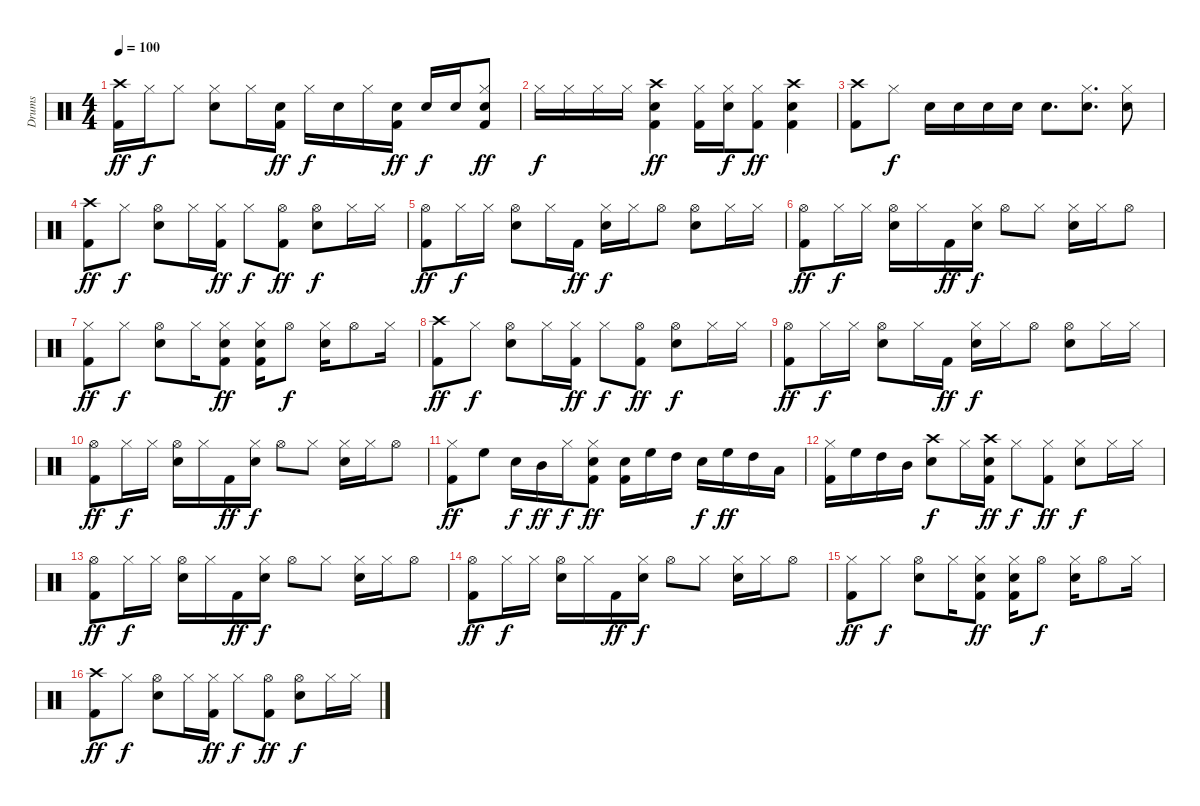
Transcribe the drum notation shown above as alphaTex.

\track ("Drums" "Drums") {instrument percussion}
\staff {score}
\articulation defaults
\ts (4 4)
\tempo 100
\clef neutral
\ks c
("Crash high (hit)" "Kick (hit) 2").16{dy ff} "Hi-Hat (closed)".16{dy f} "Hi-Hat (closed)".8 ("Hi-Hat (closed)" "Snare (hit) 2").8 "Hi-Hat (closed)".16 ("Snare (hit) 2" "Kick (hit) 2").16{dy ff} "Hi-Hat (closed)".16{dy f} "Snare (hit) 2".16 "Hi-Hat (closed)".16 ("Snare (hit) 2" "Kick (hit) 2").16{dy ff} "Snare (hit) 2".16{dy f} "Snare (hit) 2".16 ("Hi-Hat (closed)" "Snare (hit) 2" "Kick (hit) 2").8{dy ff} |
"Hi-Hat (closed)".16{dy f} "Hi-Hat (closed)".16 "Hi-Hat (closed)".16 "Hi-Hat (closed)".16 ("Crash high (hit)" "Snare (hit) 2" "Kick (hit) 2").4{dy ff} ("Hi-Hat (closed)" "Kick (hit) 2").16 ("Hi-Hat (closed)" "Snare (hit) 2").16{dy f} ("Hi-Hat (closed)" "Kick (hit) 2").8{dy ff} ("Crash high (hit)" "Snare (hit) 2" "Kick (hit) 2").4 |
("Crash high (hit)" "Kick (hit) 2").8 "Hi-Hat (closed)".8{dy f} "Snare (hit) 2".16 "Snare (hit) 2".16 "Snare (hit) 2".16 "Snare (hit) 2".16 "Snare (hit) 2".8{d} ("Hi-Hat (closed)" "Snare (hit) 2").8{d} ("Hi-Hat (closed)" "Snare (hit) 2").8 |
("Crash high (hit)" "Kick (hit) 2").8{dy ff} "Hi-Hat (closed)".8{dy f} ("Hi-Hat (open)" "Snare (hit) 2").8 "Hi-Hat (closed)".16 ("Hi-Hat (closed)" "Kick (hit) 2").16{dy ff} "Hi-Hat (closed)".8{dy f} ("Hi-Hat (open)" "Kick (hit) 2").8{dy ff} ("Hi-Hat (open)" "Snare (hit) 2").8{dy f} "Hi-Hat (closed)".16 "Hi-Hat (closed)".16 |
("Hi-Hat (open)" "Kick (hit) 2").8{dy ff} "Hi-Hat (closed)".16{dy f} "Hi-Hat (closed)".16 ("Hi-Hat (open)" "Snare (hit) 2").8 "Hi-Hat (closed)".16 "Kick (hit) 2".16{dy ff} ("Hi-Hat (closed)" "Snare (hit) 2").16{dy f} "Hi-Hat (closed)".16 "Hi-Hat (open)".8 ("Hi-Hat (open)" "Snare (hit) 2").8 "Hi-Hat (closed)".16 "Hi-Hat (closed)".16 |
("Hi-Hat (open)" "Kick (hit) 2").8{dy ff} "Hi-Hat (closed)".16{dy f} "Hi-Hat (closed)".16 ("Hi-Hat (open)" "Snare (hit) 2").16 "Hi-Hat (closed)".16 "Kick (hit) 2".16{dy ff} ("Hi-Hat (closed)" "Snare (hit) 2").16{dy f} "Hi-Hat (open)".8 "Hi-Hat (closed)".8 ("Hi-Hat (closed)" "Snare (hit) 2").16 "Hi-Hat (closed)".16 "Hi-Hat (open)".8 |
("Hi-Hat (closed)" "Kick (hit) 2").8{dy ff} "Hi-Hat (closed)".8{dy f} ("Hi-Hat (open)" "Snare (hit) 2").8 "Hi-Hat (closed)".16 ("Hi-Hat (closed)" "Snare (hit) 2" "Kick (hit) 2").8{dy ff} ("Hi-Hat (closed)" "Snare (hit) 2" "Kick (hit) 2").16 "Hi-Hat (open)".8{dy f} ("Hi-Hat (closed)" "Snare (hit) 2").16 "Hi-Hat (open)".8 "Hi-Hat (closed)".16 |
("Crash high (hit)" "Kick (hit) 2").8{dy ff} "Hi-Hat (closed)".8{dy f} ("Hi-Hat (open)" "Snare (hit) 2").8 "Hi-Hat (closed)".16 ("Hi-Hat (closed)" "Kick (hit) 2").16{dy ff} "Hi-Hat (closed)".8{dy f} ("Hi-Hat (open)" "Kick (hit) 2").8{dy ff} ("Hi-Hat (open)" "Snare (hit) 2").8{dy f} "Hi-Hat (closed)".16 "Hi-Hat (closed)".16 |
("Hi-Hat (open)" "Kick (hit) 2").8{dy ff} "Hi-Hat (closed)".16{dy f} "Hi-Hat (closed)".16 ("Hi-Hat (open)" "Snare (hit) 2").8 "Hi-Hat (closed)".16 "Kick (hit) 2".16{dy ff} ("Hi-Hat (closed)" "Snare (hit) 2").16{dy f} "Hi-Hat (closed)".16 "Hi-Hat (open)".8 ("Hi-Hat (open)" "Snare (hit) 2").8 "Hi-Hat (closed)".16 "Hi-Hat (closed)".16 |
("Hi-Hat (open)" "Kick (hit) 2").8{dy ff} "Hi-Hat (closed)".16{dy f} "Hi-Hat (closed)".16 ("Hi-Hat (open)" "Snare (hit) 2").16 "Hi-Hat (closed)".16 "Kick (hit) 2".16{dy ff} ("Hi-Hat (closed)" "Snare (hit) 2").16{dy f} "Hi-Hat (open)".8 "Hi-Hat (closed)".8 ("Hi-Hat (closed)" "Snare (hit) 2").16 "Hi-Hat (closed)".16 "Hi-Hat (open)".8 |
("Hi-Hat (closed)" "Kick (hit) 2").8{dy ff} "High Floor Tom (hit)".8 "Snare (hit) 2".16{dy f} "Mid Tom (hit)".16{dy ff} "Hi-Hat (closed)".16{dy f} ("Hi-Hat (closed)" "Snare (hit) 2" "Kick (hit) 2").8{dy ff} ("Snare (hit) 2" "Kick (hit) 2").16 "High Floor Tom (hit)".16 "High Tom (hit)".16 "Snare (hit) 2".16{dy f} "High Floor Tom (hit)".16{dy ff} "High Tom (hit)".16 "Low Tom (hit)".16 |
("Hi-Hat (closed)" "Kick (hit) 2").16 "High Floor Tom (hit)".16 "High Tom (hit)".16 "Mid Tom (hit)".16 ("Crash high (hit)" "Snare (hit) 2").8{dy f} "Hi-Hat (closed)".16 ("Crash high (hit)" "Snare (hit) 2" "Kick (hit) 2").16{dy ff} "Hi-Hat (closed)".8{dy f} ("Hi-Hat (closed)" "Kick (hit) 2").8{dy ff} ("Hi-Hat (closed)" "Snare (hit) 2").8{dy f} "Hi-Hat (closed)".16 "Hi-Hat (closed)".16 |
("Hi-Hat (open)" "Kick (hit) 2").8{dy ff} "Hi-Hat (closed)".16{dy f} "Hi-Hat (closed)".16 ("Hi-Hat (open)" "Snare (hit) 2").16 "Hi-Hat (closed)".16 "Kick (hit) 2".16{dy ff} ("Hi-Hat (closed)" "Snare (hit) 2").16{dy f} "Hi-Hat (open)".8 "Hi-Hat (closed)".8 ("Hi-Hat (closed)" "Snare (hit) 2").16 "Hi-Hat (closed)".16 "Hi-Hat (open)".8 |
("Hi-Hat (open)" "Kick (hit) 2").8{dy ff} "Hi-Hat (closed)".16{dy f} "Hi-Hat (closed)".16 ("Hi-Hat (open)" "Snare (hit) 2").16 "Hi-Hat (closed)".16 "Kick (hit) 2".16{dy ff} ("Hi-Hat (closed)" "Snare (hit) 2").16{dy f} "Hi-Hat (open)".8 "Hi-Hat (closed)".8 ("Hi-Hat (closed)" "Snare (hit) 2").16 "Hi-Hat (closed)".16 "Hi-Hat (open)".8 |
("Hi-Hat (closed)" "Kick (hit) 2").8{dy ff} "Hi-Hat (closed)".8{dy f} ("Hi-Hat (open)" "Snare (hit) 2").8 "Hi-Hat (closed)".16 ("Hi-Hat (closed)" "Snare (hit) 2" "Kick (hit) 2").8{dy ff} ("Hi-Hat (closed)" "Snare (hit) 2" "Kick (hit) 2").16 "Hi-Hat (open)".8{dy f} ("Hi-Hat (closed)" "Snare (hit) 2").16 "Hi-Hat (open)".8 "Hi-Hat (closed)".16 |
("Crash high (hit)" "Kick (hit) 2").8{dy ff volume 0} "Hi-Hat (closed)".8{dy f} ("Hi-Hat (open)" "Snare (hit) 2").8 "Hi-Hat (closed)".16 ("Hi-Hat (closed)" "Kick (hit) 2").16{dy ff} "Hi-Hat (closed)".8{dy f} ("Hi-Hat (open)" "Kick (hit) 2").8{dy ff} ("Hi-Hat (open)" "Snare (hit) 2").8{dy f} "Hi-Hat (closed)".16 "Hi-Hat (closed)".16
